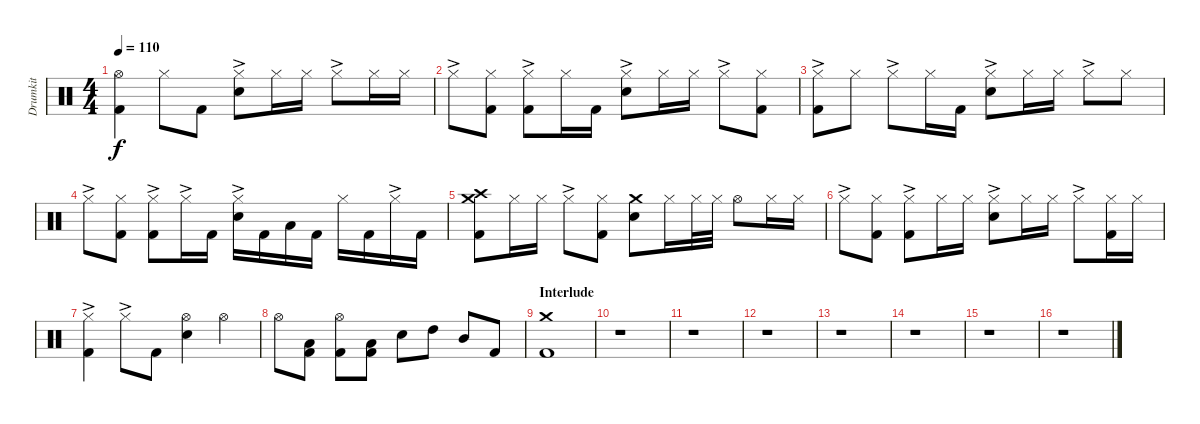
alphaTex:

\track ("Drumkit" "Drumkit") {instrument percussion}
\staff {score}
\articulation defaults
\ts (4 4)
\tempo 110
\clef neutral
\ks c
("Hi-Hat (open)" "Kick (hit) 2").4{dy f} "Hi-Hat (closed)".8 "Kick (hit) 2".8 ("Hi-Hat (closed)"{ac} "Snare (hit) 2").8 "Hi-Hat (closed)".16 "Hi-Hat (closed)".16 "Hi-Hat (closed)"{ac}.8 "Hi-Hat (closed)".16 "Hi-Hat (closed)".16 |
"Hi-Hat (closed)"{ac}.8 ("Hi-Hat (closed)" "Kick (hit) 2").8 ("Hi-Hat (closed)"{ac} "Kick (hit) 2").8 "Hi-Hat (closed)".16 "Kick (hit) 2".16 ("Hi-Hat (closed)"{ac} "Snare (hit) 2").8 "Hi-Hat (closed)".16 "Hi-Hat (closed)".16 "Hi-Hat (closed)"{ac}.8 ("Hi-Hat (closed)" "Kick (hit) 2").8 |
("Hi-Hat (closed)"{ac} "Kick (hit) 2").8 "Hi-Hat (closed)".8 "Hi-Hat (closed)"{ac}.8 "Hi-Hat (closed)".16 "Kick (hit) 2".16 ("Hi-Hat (closed)"{ac} "Snare (hit) 2").8 "Hi-Hat (closed)".16 "Hi-Hat (closed)".16 "Hi-Hat (closed)"{ac}.8 "Hi-Hat (closed)".8 |
"Hi-Hat (closed)"{ac}.8 ("Hi-Hat (closed)" "Kick (hit) 2").8 ("Hi-Hat (closed)"{ac} "Kick (hit) 2").8 "Hi-Hat (closed)"{ac}.16 "Kick (hit) 2".16 ("Hi-Hat (closed)"{ac} "Snare (hit) 2").16 "Kick (hit) 2".16 "Low Tom (hit)".16 "Kick (hit) 2".16 "Hi-Hat (closed)".16 "Kick (hit) 2".16 "Hi-Hat (closed)"{ac}.16 "Kick (hit) 2".16 |
("Crash medium (hit)" "Crash high (hit)" "Kick (hit) 2").8 "Hi-Hat (closed)".16 "Hi-Hat (closed)".16 "Hi-Hat (closed)"{ac}.8 ("Hi-Hat (closed)" "Kick (hit) 2").8 ("Crash medium (hit)" "Snare (hit) 2").8 "Hi-Hat (closed)".16 "Hi-Hat (closed)".32 "Hi-Hat (closed)".32 "Hi-Hat (open)".8 "Hi-Hat (closed)".16 "Hi-Hat (closed)".16 |
"Hi-Hat (closed)"{ac}.8 ("Hi-Hat (closed)" "Kick (hit) 2").8 ("Hi-Hat (closed)"{ac} "Kick (hit) 2").8 "Hi-Hat (closed)".16 "Hi-Hat (closed)".16 ("Hi-Hat (closed)"{ac} "Snare (hit) 2").8 "Hi-Hat (closed)".16 "Hi-Hat (closed)".16 "Hi-Hat (closed)"{ac}.8 ("Hi-Hat (closed)" "Kick (hit) 2").16 "Hi-Hat (closed)".16 |
("Hi-Hat (closed)"{ac} "Kick (hit) 2").4 "Hi-Hat (closed)"{ac}.8 "Kick (hit) 2".8 ("Hi-Hat (open)" "Snare (hit) 2").4 "Hi-Hat (open)".4 |
"Hi-Hat (open)".8 ("Low Tom (hit)" "Kick (hit) 2").8 ("Hi-Hat (open)" "Kick (hit) 2").8 ("Low Tom (hit)" "Kick (hit) 2").8 "Snare (hit) 2".8 "High Tom (hit)".8 "Mid Tom (hit)".8 "Kick (hit) 2".8 |
\section ("" "Interlude")
("Crash medium (hit)" "Kick (hit) 2").1 |
r.1 |
r.1 |
r.1 |
r.1 |
r.1 |
r.1 |
r.1
